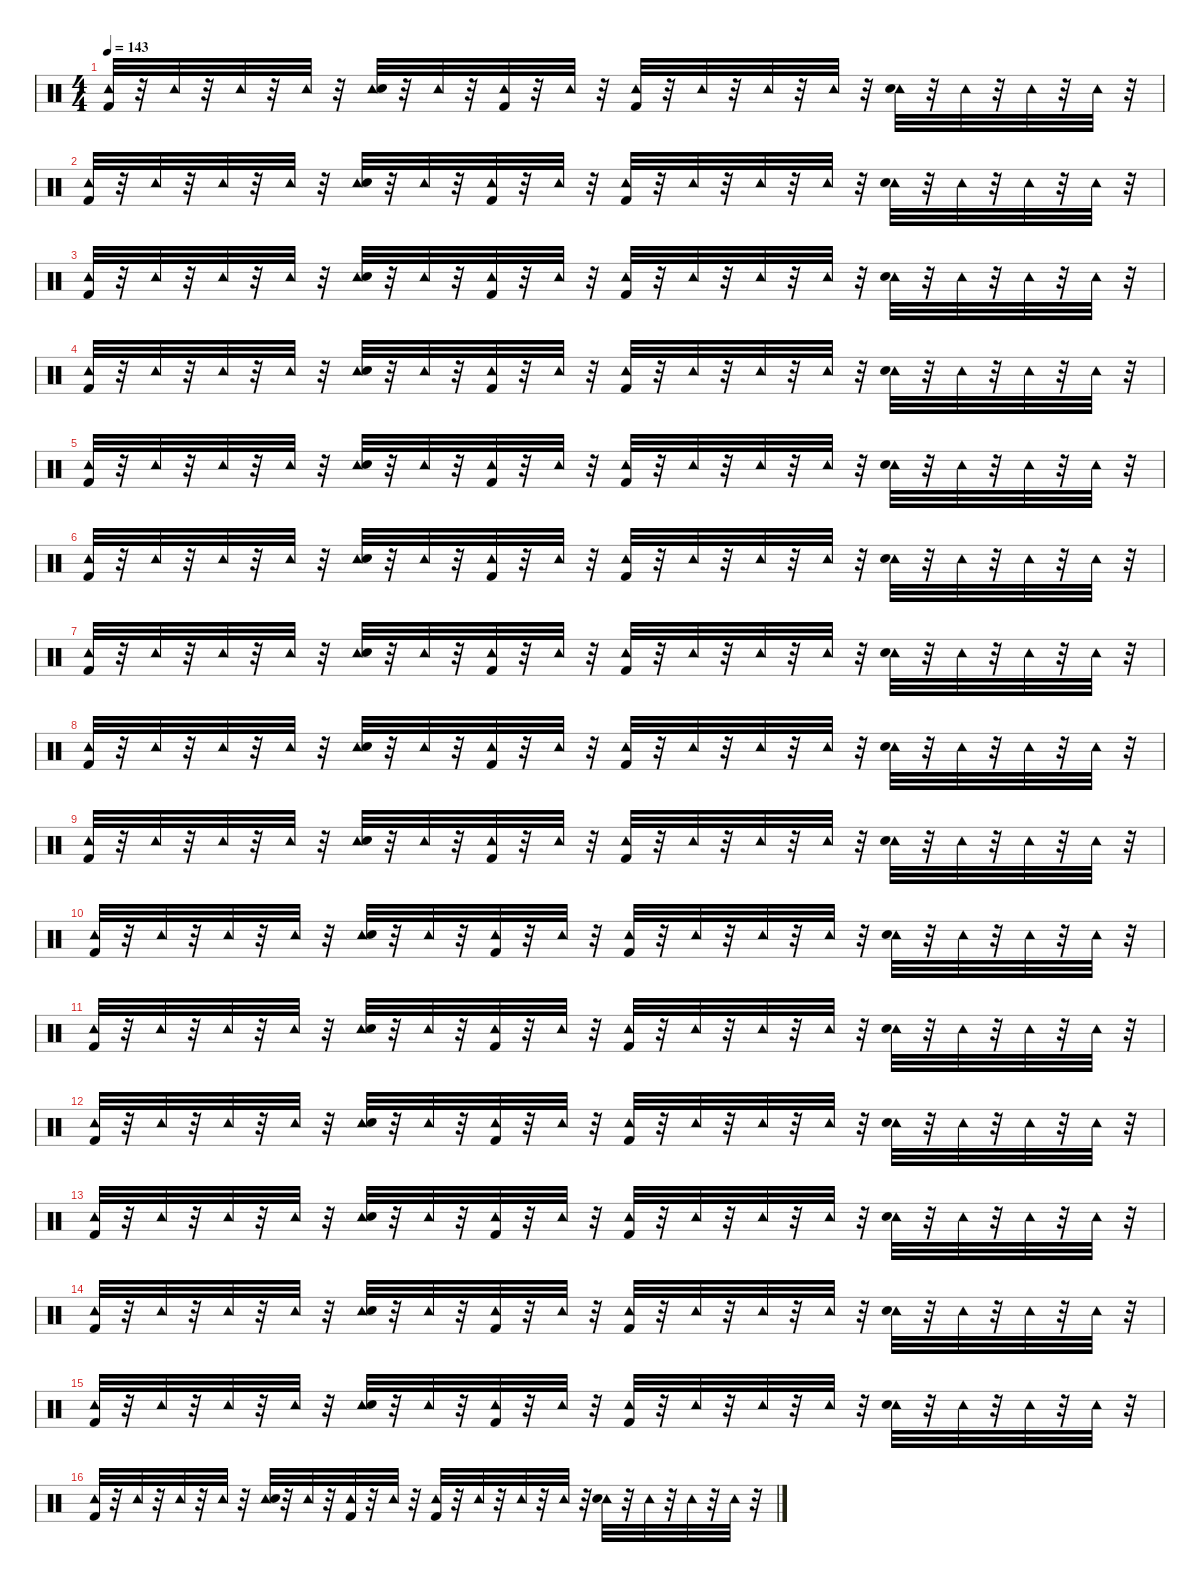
\defaultSystemsLayout 4
\hideDynamics
\bracketExtendMode nobrackets
\singleTrackTrackNamePolicy hidden
\multiTrackTrackNamePolicy hidden
\firstSystemTrackNameMode fullname
\firstSystemTrackNameOrientation horizontal
\otherSystemsTrackNameOrientation horizontal
\track ("Drums" "drm.") {instrument percussion}
\staff {score}
\articulation defaults
\ts (4 4)
\tempo 143
\clef neutral
\ks c
("Kick (hit) 2" "Tambourine (hit)").32{dy ff beam Up} r.32{beam Up} "Tambourine (hit)".32{dy mf beam Up} r.32{beam Up} "Tambourine (hit)".32{beam Up} r.32{beam Up} "Tambourine (hit)".32{beam Up} r.32{beam Up} ("Tambourine (hit)" "Snare (hit) 2").32{dy fff beam Up} r.32{beam Up} "Tambourine (hit)".32{dy mf beam Up} r.32{beam Up} ("Kick (hit) 2" "Tambourine (hit)").32{dy fff beam Up} r.32{beam Up} "Tambourine (hit)".32{dy mf beam Up} r.32{beam Up} ("Kick (hit) 2" "Tambourine (hit)").32{dy ff beam Up} r.32{beam Up} "Tambourine (hit)".32{dy mf beam Up} r.32{beam Up} "Tambourine (hit)".32{dy mp beam Up} r.32{beam Up} "Tambourine (hit)".32{dy mf beam Up} r.32{beam Up} ("Tambourine (hit)" "Snare (hit) 2").32{dy fff beam Down} r.32{beam Down} "Tambourine (hit)".32{dy mf beam Down} r.32{beam Down} "Tambourine (hit)".32{beam Down} r.32{beam Down} "Tambourine (hit)".32{beam Down} r.32{beam Down} |
("Kick (hit) 2" "Tambourine (hit)").32{dy ff beam Up} r.32{beam Up} "Tambourine (hit)".32{dy mf beam Up} r.32{beam Up} "Tambourine (hit)".32{beam Up} r.32{beam Up} "Tambourine (hit)".32{beam Up} r.32{beam Up} ("Tambourine (hit)" "Snare (hit) 2").32{dy fff beam Up} r.32{beam Up} "Tambourine (hit)".32{dy mf beam Up} r.32{beam Up} ("Kick (hit) 2" "Tambourine (hit)").32{dy fff beam Up} r.32{beam Up} "Tambourine (hit)".32{dy mf beam Up} r.32{beam Up} ("Kick (hit) 2" "Tambourine (hit)").32{dy ff beam Up} r.32{beam Up} "Tambourine (hit)".32{dy mf beam Up} r.32{beam Up} "Tambourine (hit)".32{dy mp beam Up} r.32{beam Up} "Tambourine (hit)".32{dy mf beam Up} r.32{beam Up} ("Tambourine (hit)" "Snare (hit) 2").32{dy fff beam Down} r.32{beam Down} "Tambourine (hit)".32{dy mf beam Down} r.32{beam Down} "Tambourine (hit)".32{beam Down} r.32{beam Down} "Tambourine (hit)".32{beam Down} r.32{beam Down} |
("Kick (hit) 2" "Tambourine (hit)").32{dy ff beam Up} r.32{beam Up} "Tambourine (hit)".32{dy mf beam Up} r.32{beam Up} "Tambourine (hit)".32{beam Up} r.32{beam Up} "Tambourine (hit)".32{beam Up} r.32{beam Up} ("Tambourine (hit)" "Snare (hit) 2").32{dy fff beam Up} r.32{beam Up} "Tambourine (hit)".32{dy mf beam Up} r.32{beam Up} ("Kick (hit) 2" "Tambourine (hit)").32{dy fff beam Up} r.32{beam Up} "Tambourine (hit)".32{dy mf beam Up} r.32{beam Up} ("Kick (hit) 2" "Tambourine (hit)").32{dy ff beam Up} r.32{beam Up} "Tambourine (hit)".32{dy mf beam Up} r.32{beam Up} "Tambourine (hit)".32{dy mp beam Up} r.32{beam Up} "Tambourine (hit)".32{dy mf beam Up} r.32{beam Up} ("Tambourine (hit)" "Snare (hit) 2").32{dy fff beam Down} r.32{beam Down} "Tambourine (hit)".32{dy mf beam Down} r.32{beam Down} "Tambourine (hit)".32{beam Down} r.32{beam Down} "Tambourine (hit)".32{beam Down} r.32{beam Down} |
("Kick (hit) 2" "Tambourine (hit)").32{dy ff beam Up} r.32{beam Up} "Tambourine (hit)".32{dy mf beam Up} r.32{beam Up} "Tambourine (hit)".32{beam Up} r.32{beam Up} "Tambourine (hit)".32{beam Up} r.32{beam Up} ("Tambourine (hit)" "Snare (hit) 2").32{dy fff beam Up} r.32{beam Up} "Tambourine (hit)".32{dy mf beam Up} r.32{beam Up} ("Kick (hit) 2" "Tambourine (hit)").32{dy fff beam Up} r.32{beam Up} "Tambourine (hit)".32{dy mf beam Up} r.32{beam Up} ("Kick (hit) 2" "Tambourine (hit)").32{dy ff beam Up} r.32{beam Up} "Tambourine (hit)".32{dy mf beam Up} r.32{beam Up} "Tambourine (hit)".32{dy mp beam Up} r.32{beam Up} "Tambourine (hit)".32{dy mf beam Up} r.32{beam Up} ("Tambourine (hit)" "Snare (hit) 2").32{dy fff beam Down} r.32{beam Down} "Tambourine (hit)".32{dy mf beam Down} r.32{beam Down} "Tambourine (hit)".32{beam Down} r.32{beam Down} "Tambourine (hit)".32{beam Down} r.32{beam Down} |
("Kick (hit) 2" "Tambourine (hit)").32{dy ff beam Up} r.32{beam Up} "Tambourine (hit)".32{dy mf beam Up} r.32{beam Up} "Tambourine (hit)".32{beam Up} r.32{beam Up} "Tambourine (hit)".32{beam Up} r.32{beam Up} ("Tambourine (hit)" "Snare (hit) 2").32{dy fff beam Up} r.32{beam Up} "Tambourine (hit)".32{dy mf beam Up} r.32{beam Up} ("Kick (hit) 2" "Tambourine (hit)").32{dy fff beam Up} r.32{beam Up} "Tambourine (hit)".32{dy mf beam Up} r.32{beam Up} ("Kick (hit) 2" "Tambourine (hit)").32{dy ff beam Up} r.32{beam Up} "Tambourine (hit)".32{dy mf beam Up} r.32{beam Up} "Tambourine (hit)".32{dy mp beam Up} r.32{beam Up} "Tambourine (hit)".32{dy mf beam Up} r.32{beam Up} ("Tambourine (hit)" "Snare (hit) 2").32{dy fff beam Down} r.32{beam Down} "Tambourine (hit)".32{dy mf beam Down} r.32{beam Down} "Tambourine (hit)".32{beam Down} r.32{beam Down} "Tambourine (hit)".32{beam Down} r.32{beam Down} |
("Kick (hit) 2" "Tambourine (hit)").32{dy ff beam Up} r.32{beam Up} "Tambourine (hit)".32{dy mf beam Up} r.32{beam Up} "Tambourine (hit)".32{beam Up} r.32{beam Up} "Tambourine (hit)".32{beam Up} r.32{beam Up} ("Tambourine (hit)" "Snare (hit) 2").32{dy fff beam Up} r.32{beam Up} "Tambourine (hit)".32{dy mf beam Up} r.32{beam Up} ("Kick (hit) 2" "Tambourine (hit)").32{dy fff beam Up} r.32{beam Up} "Tambourine (hit)".32{dy mf beam Up} r.32{beam Up} ("Kick (hit) 2" "Tambourine (hit)").32{dy ff beam Up} r.32{beam Up} "Tambourine (hit)".32{dy mf beam Up} r.32{beam Up} "Tambourine (hit)".32{dy mp beam Up} r.32{beam Up} "Tambourine (hit)".32{dy mf beam Up} r.32{beam Up} ("Tambourine (hit)" "Snare (hit) 2").32{dy fff beam Down} r.32{beam Down} "Tambourine (hit)".32{dy mf beam Down} r.32{beam Down} "Tambourine (hit)".32{beam Down} r.32{beam Down} "Tambourine (hit)".32{beam Down} r.32{beam Down} |
("Kick (hit) 2" "Tambourine (hit)").32{dy ff beam Up} r.32{beam Up} "Tambourine (hit)".32{dy mf beam Up} r.32{beam Up} "Tambourine (hit)".32{beam Up} r.32{beam Up} "Tambourine (hit)".32{beam Up} r.32{beam Up} ("Tambourine (hit)" "Snare (hit) 2").32{dy fff beam Up} r.32{beam Up} "Tambourine (hit)".32{dy mf beam Up} r.32{beam Up} ("Kick (hit) 2" "Tambourine (hit)").32{dy fff beam Up} r.32{beam Up} "Tambourine (hit)".32{dy mf beam Up} r.32{beam Up} ("Kick (hit) 2" "Tambourine (hit)").32{dy ff beam Up} r.32{beam Up} "Tambourine (hit)".32{dy mf beam Up} r.32{beam Up} "Tambourine (hit)".32{dy mp beam Up} r.32{beam Up} "Tambourine (hit)".32{dy mf beam Up} r.32{beam Up} ("Tambourine (hit)" "Snare (hit) 2").32{dy fff beam Down} r.32{beam Down} "Tambourine (hit)".32{dy mf beam Down} r.32{beam Down} "Tambourine (hit)".32{beam Down} r.32{beam Down} "Tambourine (hit)".32{beam Down} r.32{beam Down} |
("Kick (hit) 2" "Tambourine (hit)").32{dy ff beam Up} r.32{beam Up} "Tambourine (hit)".32{dy mf beam Up} r.32{beam Up} "Tambourine (hit)".32{beam Up} r.32{beam Up} "Tambourine (hit)".32{beam Up} r.32{beam Up} ("Tambourine (hit)" "Snare (hit) 2").32{dy fff beam Up} r.32{beam Up} "Tambourine (hit)".32{dy mf beam Up} r.32{beam Up} ("Kick (hit) 2" "Tambourine (hit)").32{dy fff beam Up} r.32{beam Up} "Tambourine (hit)".32{dy mf beam Up} r.32{beam Up} ("Kick (hit) 2" "Tambourine (hit)").32{dy ff beam Up} r.32{beam Up} "Tambourine (hit)".32{dy mf beam Up} r.32{beam Up} "Tambourine (hit)".32{dy mp beam Up} r.32{beam Up} "Tambourine (hit)".32{dy mf beam Up} r.32{beam Up} ("Tambourine (hit)" "Snare (hit) 2").32{dy fff beam Down} r.32{beam Down} "Tambourine (hit)".32{dy mf beam Down} r.32{beam Down} "Tambourine (hit)".32{beam Down} r.32{beam Down} "Tambourine (hit)".32{beam Down} r.32{beam Down} |
("Kick (hit) 2" "Tambourine (hit)").32{dy ff beam Up} r.32{beam Up} "Tambourine (hit)".32{dy mf beam Up} r.32{beam Up} "Tambourine (hit)".32{beam Up} r.32{beam Up} "Tambourine (hit)".32{beam Up} r.32{beam Up} ("Tambourine (hit)" "Snare (hit) 2").32{dy fff beam Up} r.32{beam Up} "Tambourine (hit)".32{dy mf beam Up} r.32{beam Up} ("Kick (hit) 2" "Tambourine (hit)").32{dy fff beam Up} r.32{beam Up} "Tambourine (hit)".32{dy mf beam Up} r.32{beam Up} ("Kick (hit) 2" "Tambourine (hit)").32{dy ff beam Up} r.32{beam Up} "Tambourine (hit)".32{dy mf beam Up} r.32{beam Up} "Tambourine (hit)".32{dy mp beam Up} r.32{beam Up} "Tambourine (hit)".32{dy mf beam Up} r.32{beam Up} ("Tambourine (hit)" "Snare (hit) 2").32{dy fff beam Down} r.32{beam Down} "Tambourine (hit)".32{dy mf beam Down} r.32{beam Down} "Tambourine (hit)".32{beam Down} r.32{beam Down} "Tambourine (hit)".32{beam Down} r.32{beam Down} |
("Kick (hit) 2" "Tambourine (hit)").32{dy ff beam Up} r.32{beam Up} "Tambourine (hit)".32{dy mf beam Up} r.32{beam Up} "Tambourine (hit)".32{beam Up} r.32{beam Up} "Tambourine (hit)".32{beam Up} r.32{beam Up} ("Tambourine (hit)" "Snare (hit) 2").32{dy fff beam Up} r.32{beam Up} "Tambourine (hit)".32{dy mf beam Up} r.32{beam Up} ("Kick (hit) 2" "Tambourine (hit)").32{dy fff beam Up} r.32{beam Up} "Tambourine (hit)".32{dy mf beam Up} r.32{beam Up} ("Kick (hit) 2" "Tambourine (hit)").32{dy ff beam Up} r.32{beam Up} "Tambourine (hit)".32{dy mf beam Up} r.32{beam Up} "Tambourine (hit)".32{dy mp beam Up} r.32{beam Up} "Tambourine (hit)".32{dy mf beam Up} r.32{beam Up} ("Tambourine (hit)" "Snare (hit) 2").32{dy fff beam Down} r.32{beam Down} "Tambourine (hit)".32{dy mf beam Down} r.32{beam Down} "Tambourine (hit)".32{beam Down} r.32{beam Down} "Tambourine (hit)".32{beam Down} r.32{beam Down} |
("Kick (hit) 2" "Tambourine (hit)").32{dy ff beam Up} r.32{beam Up} "Tambourine (hit)".32{dy mf beam Up} r.32{beam Up} "Tambourine (hit)".32{beam Up} r.32{beam Up} "Tambourine (hit)".32{beam Up} r.32{beam Up} ("Tambourine (hit)" "Snare (hit) 2").32{dy fff beam Up} r.32{beam Up} "Tambourine (hit)".32{dy mf beam Up} r.32{beam Up} ("Kick (hit) 2" "Tambourine (hit)").32{dy fff beam Up} r.32{beam Up} "Tambourine (hit)".32{dy mf beam Up} r.32{beam Up} ("Kick (hit) 2" "Tambourine (hit)").32{dy ff beam Up} r.32{beam Up} "Tambourine (hit)".32{dy mf beam Up} r.32{beam Up} "Tambourine (hit)".32{dy mp beam Up} r.32{beam Up} "Tambourine (hit)".32{dy mf beam Up} r.32{beam Up} ("Tambourine (hit)" "Snare (hit) 2").32{dy fff beam Down} r.32{beam Down} "Tambourine (hit)".32{dy mf beam Down} r.32{beam Down} "Tambourine (hit)".32{beam Down} r.32{beam Down} "Tambourine (hit)".32{beam Down} r.32{beam Down} |
("Kick (hit) 2" "Tambourine (hit)").32{dy ff beam Up} r.32{beam Up} "Tambourine (hit)".32{dy mf beam Up} r.32{beam Up} "Tambourine (hit)".32{beam Up} r.32{beam Up} "Tambourine (hit)".32{beam Up} r.32{beam Up} ("Tambourine (hit)" "Snare (hit) 2").32{dy fff beam Up} r.32{beam Up} "Tambourine (hit)".32{dy mf beam Up} r.32{beam Up} ("Kick (hit) 2" "Tambourine (hit)").32{dy fff beam Up} r.32{beam Up} "Tambourine (hit)".32{dy mf beam Up} r.32{beam Up} ("Kick (hit) 2" "Tambourine (hit)").32{dy ff beam Up} r.32{beam Up} "Tambourine (hit)".32{dy mf beam Up} r.32{beam Up} "Tambourine (hit)".32{dy mp beam Up} r.32{beam Up} "Tambourine (hit)".32{dy mf beam Up} r.32{beam Up} ("Tambourine (hit)" "Snare (hit) 2").32{dy fff beam Down} r.32{beam Down} "Tambourine (hit)".32{dy mf beam Down} r.32{beam Down} "Tambourine (hit)".32{beam Down} r.32{beam Down} "Tambourine (hit)".32{beam Down} r.32{beam Down} |
("Kick (hit) 2" "Tambourine (hit)").32{dy ff beam Up} r.32{beam Up} "Tambourine (hit)".32{dy mf beam Up} r.32{beam Up} "Tambourine (hit)".32{beam Up} r.32{beam Up} "Tambourine (hit)".32{beam Up} r.32{beam Up} ("Tambourine (hit)" "Snare (hit) 2").32{dy fff beam Up} r.32{beam Up} "Tambourine (hit)".32{dy mf beam Up} r.32{beam Up} ("Kick (hit) 2" "Tambourine (hit)").32{dy fff beam Up} r.32{beam Up} "Tambourine (hit)".32{dy mf beam Up} r.32{beam Up} ("Kick (hit) 2" "Tambourine (hit)").32{dy ff beam Up} r.32{beam Up} "Tambourine (hit)".32{dy mf beam Up} r.32{beam Up} "Tambourine (hit)".32{dy mp beam Up} r.32{beam Up} "Tambourine (hit)".32{dy mf beam Up} r.32{beam Up} ("Tambourine (hit)" "Snare (hit) 2").32{dy fff beam Down} r.32{beam Down} "Tambourine (hit)".32{dy mf beam Down} r.32{beam Down} "Tambourine (hit)".32{beam Down} r.32{beam Down} "Tambourine (hit)".32{beam Down} r.32{beam Down} |
("Kick (hit) 2" "Tambourine (hit)").32{dy ff beam Up} r.32{beam Up} "Tambourine (hit)".32{dy mf beam Up} r.32{beam Up} "Tambourine (hit)".32{beam Up} r.32{beam Up} "Tambourine (hit)".32{beam Up} r.32{beam Up} ("Tambourine (hit)" "Snare (hit) 2").32{dy fff beam Up} r.32{beam Up} "Tambourine (hit)".32{dy mf beam Up} r.32{beam Up} ("Kick (hit) 2" "Tambourine (hit)").32{dy fff beam Up} r.32{beam Up} "Tambourine (hit)".32{dy mf beam Up} r.32{beam Up} ("Kick (hit) 2" "Tambourine (hit)").32{dy ff beam Up} r.32{beam Up} "Tambourine (hit)".32{dy mf beam Up} r.32{beam Up} "Tambourine (hit)".32{dy mp beam Up} r.32{beam Up} "Tambourine (hit)".32{dy mf beam Up} r.32{beam Up} ("Tambourine (hit)" "Snare (hit) 2").32{dy fff beam Down} r.32{beam Down} "Tambourine (hit)".32{dy mf beam Down} r.32{beam Down} "Tambourine (hit)".32{beam Down} r.32{beam Down} "Tambourine (hit)".32{beam Down} r.32{beam Down} |
("Kick (hit) 2" "Tambourine (hit)").32{dy ff beam Up} r.32{beam Up} "Tambourine (hit)".32{dy mf beam Up} r.32{beam Up} "Tambourine (hit)".32{beam Up} r.32{beam Up} "Tambourine (hit)".32{beam Up} r.32{beam Up} ("Tambourine (hit)" "Snare (hit) 2").32{dy fff beam Up} r.32{beam Up} "Tambourine (hit)".32{dy mf beam Up} r.32{beam Up} ("Kick (hit) 2" "Tambourine (hit)").32{dy fff beam Up} r.32{beam Up} "Tambourine (hit)".32{dy mf beam Up} r.32{beam Up} ("Kick (hit) 2" "Tambourine (hit)").32{dy ff beam Up} r.32{beam Up} "Tambourine (hit)".32{dy mf beam Up} r.32{beam Up} "Tambourine (hit)".32{dy mp beam Up} r.32{beam Up} "Tambourine (hit)".32{dy mf beam Up} r.32{beam Up} ("Tambourine (hit)" "Snare (hit) 2").32{dy fff beam Down} r.32{beam Down} "Tambourine (hit)".32{dy mf beam Down} r.32{beam Down} "Tambourine (hit)".32{beam Down} r.32{beam Down} "Tambourine (hit)".32{beam Down} r.32{beam Down} |
("Kick (hit) 2" "Tambourine (hit)").32{dy ff beam Up} r.32{beam Up} "Tambourine (hit)".32{dy mf beam Up} r.32{beam Up} "Tambourine (hit)".32{beam Up} r.32{beam Up} "Tambourine (hit)".32{beam Up} r.32{beam Up} ("Tambourine (hit)" "Snare (hit) 2").32{dy fff beam Up} r.32{beam Up} "Tambourine (hit)".32{dy mf beam Up} r.32{beam Up} ("Kick (hit) 2" "Tambourine (hit)").32{dy fff beam Up} r.32{beam Up} "Tambourine (hit)".32{dy mf beam Up} r.32{beam Up} ("Kick (hit) 2" "Tambourine (hit)").32{dy ff beam Up} r.32{beam Up} "Tambourine (hit)".32{dy mf beam Up} r.32{beam Up} "Tambourine (hit)".32{dy mp beam Up} r.32{beam Up} "Tambourine (hit)".32{dy mf beam Up} r.32{beam Up} ("Tambourine (hit)" "Snare (hit) 2").32{dy fff beam Down} r.32{beam Down} "Tambourine (hit)".32{dy mf beam Down} r.32{beam Down} "Tambourine (hit)".32{beam Down} r.32{beam Down} "Tambourine (hit)".32{beam Down} r.32{beam Down}
